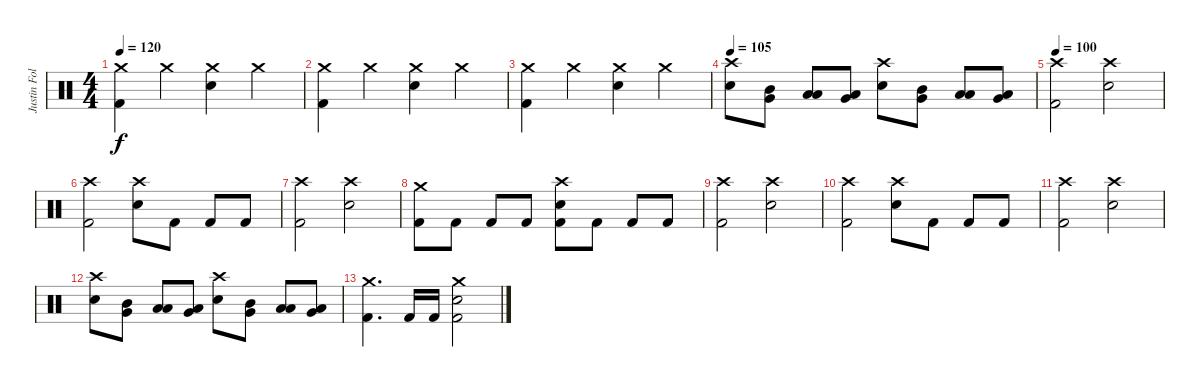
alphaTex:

\track ("Justin Foley" "Justin Fol") {instrument percussion}
\staff {score}
\articulation defaults
\ts (4 4)
\tempo 120
\clef neutral
\ks c
("Crash medium (hit)" "Kick (hit) 2").4{dy f} "Crash medium (hit)".4 ("Crash medium (hit)" "Electric Snare (hit)").4 "Crash medium (hit)".4 |
("Crash medium (hit)" "Kick (hit) 2").4 "Crash medium (hit)".4 ("Crash medium (hit)" "Electric Snare (hit)").4 "Crash medium (hit)".4 |
("Crash medium (hit)" "Kick (hit) 2").4 "Crash medium (hit)".4 ("Crash medium (hit)" "Electric Snare (hit)").4 "Crash medium (hit)".4 |
\tempo 105
("Crash high (hit)" "Electric Snare (hit)").8 ("Mid Tom (hit)" "Very Low Tom (hit)").8 ("Low Tom (hit)" "Low Floor Tom (hit)").8 ("Very Low Tom (hit)" "Low Floor Tom (hit)").8 ("Crash high (hit)" "Electric Snare (hit)").8 ("Mid Tom (hit)" "Very Low Tom (hit)").8 ("Low Tom (hit)" "Low Floor Tom (hit)").8 ("Very Low Tom (hit)" "Low Floor Tom (hit)").8 |
\tempo 100
("Crash high (hit)" "Kick (hit) 2").2 ("Crash high (hit)" "Electric Snare (hit)").2 |
("Crash high (hit)" "Kick (hit) 2").2 ("Crash high (hit)" "Electric Snare (hit)").8 "Kick (hit) 2".8 "Kick (hit) 2".8 "Kick (hit) 2".8 |
("Crash high (hit)" "Kick (hit) 2").2 ("Crash high (hit)" "Electric Snare (hit)").2 |
("Crash medium (hit)" "Kick (hit) 2").8 "Kick (hit) 2".8 "Kick (hit) 2".8 "Kick (hit) 2".8 ("Crash high (hit)" "Electric Snare (hit)" "Kick (hit) 2").8 "Kick (hit) 2".8 "Kick (hit) 2".8 "Kick (hit) 2".8 |
("Crash high (hit)" "Kick (hit) 2").2 ("Crash high (hit)" "Electric Snare (hit)").2 |
("Crash high (hit)" "Kick (hit) 2").2 ("Crash high (hit)" "Electric Snare (hit)").8 "Kick (hit) 2".8 "Kick (hit) 2".8 "Kick (hit) 2".8 |
("Crash high (hit)" "Kick (hit) 2").2 ("Crash high (hit)" "Electric Snare (hit)").2 |
("Crash high (hit)" "Electric Snare (hit)").8 ("Mid Tom (hit)" "Very Low Tom (hit)").8 ("Low Tom (hit)" "Low Floor Tom (hit)").8 ("Very Low Tom (hit)" "Low Floor Tom (hit)").8 ("Crash high (hit)" "Electric Snare (hit)").8 ("Mid Tom (hit)" "Very Low Tom (hit)").8 ("Low Tom (hit)" "Low Floor Tom (hit)").8 ("Very Low Tom (hit)" "Low Floor Tom (hit)").8 |
("Crash medium (hit)" "Kick (hit) 2").4{d} "Kick (hit) 2".16 "Kick (hit) 2".16 ("Crash medium (hit)" "Electric Snare (hit)" "Kick (hit) 2").2
